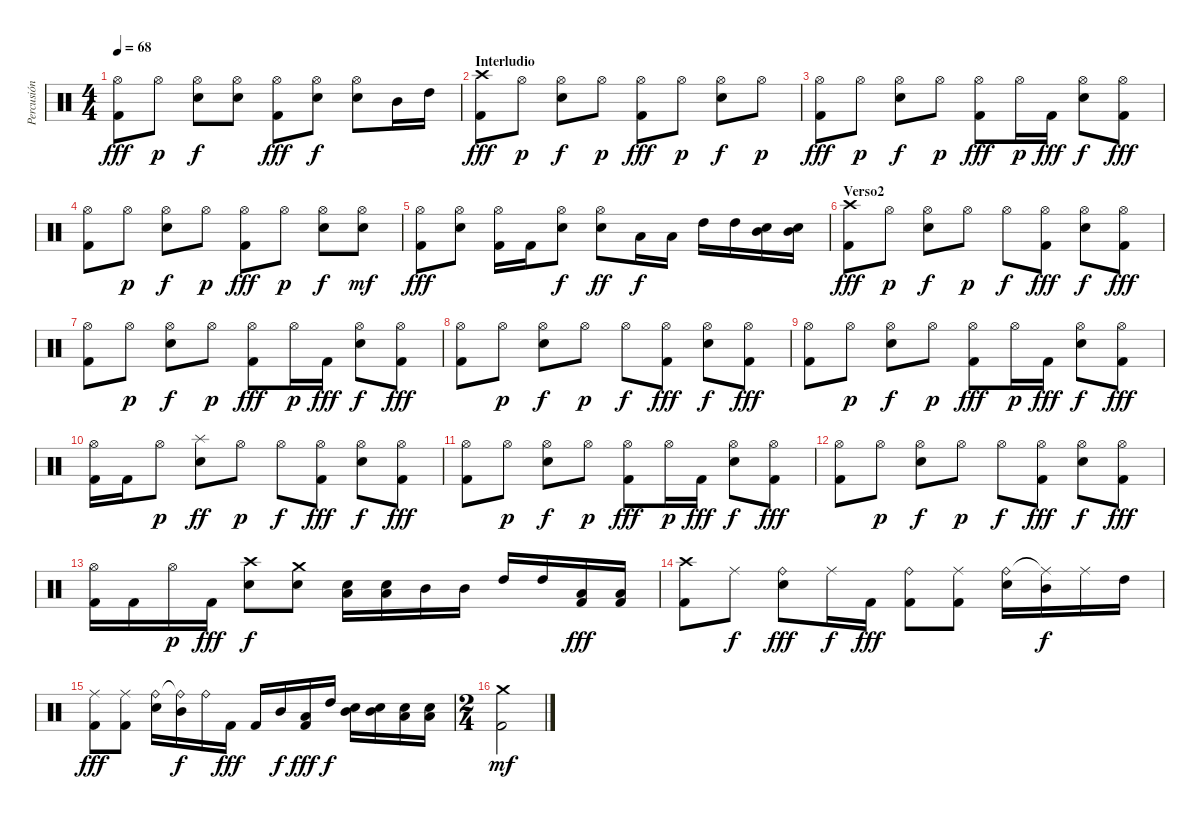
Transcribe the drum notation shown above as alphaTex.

\track ("Percusión" "Percusión") {instrument percussion}
\staff {score}
\articulation defaults
\ts (4 4)
\tempo 68
\clef neutral
\ks c
("Hi-Hat (open)" "Kick (hit) 2").8{dy fff} "Hi-Hat (open)".8{dy p} ("Hi-Hat (open)" "Snare (hit) 2").8{dy f} ("Hi-Hat (open)" "Snare (hit) 2").8 ("Hi-Hat (open)" "Kick (hit) 2").8{dy fff} ("Hi-Hat (open)" "Snare (hit) 2").8{dy f} ("Hi-Hat (open)" "Snare (hit) 2").8 "Mid Tom (hit)".16 "High Tom (hit)".16 |
\section ("" "Interludio")
("Kick (hit) 2" "Crash high (hit)").8{dy fff} "Hi-Hat (open)".8{dy p} ("Hi-Hat (open)" "Snare (hit) 2").8{dy f} "Hi-Hat (open)".8{dy p} ("Hi-Hat (open)" "Kick (hit) 2").8{dy fff} "Hi-Hat (open)".8{dy p} ("Hi-Hat (open)" "Snare (hit) 2").8{dy f} "Hi-Hat (open)".8{dy p} |
("Hi-Hat (open)" "Kick (hit) 2").8{dy fff} "Hi-Hat (open)".8{dy p} ("Hi-Hat (open)" "Snare (hit) 2").8{dy f} "Hi-Hat (open)".8{dy p} ("Hi-Hat (open)" "Kick (hit) 2").8{dy fff} "Hi-Hat (open)".16{dy p} "Kick (hit) 2".16{dy fff} ("Hi-Hat (open)" "Snare (hit) 2").8{dy f} ("Hi-Hat (open)" "Kick (hit) 2").8{dy fff} |
("Hi-Hat (open)" "Kick (hit) 2").8 "Hi-Hat (open)".8{dy p} ("Hi-Hat (open)" "Snare (hit) 2").8{dy f} "Hi-Hat (open)".8{dy p} ("Hi-Hat (open)" "Kick (hit) 2").8{dy fff} "Hi-Hat (open)".8{dy p} ("Hi-Hat (open)" "Snare (hit) 2").8{dy f} ("Hi-Hat (open)" "Snare (hit) 2").8{dy mf} |
("Hi-Hat (open)" "Kick (hit) 2").8{dy fff} ("Hi-Hat (open)" "Snare (hit) 2").8 ("Hi-Hat (open)" "Kick (hit) 2").16 "Kick (hit) 2".16 ("Hi-Hat (open)" "Snare (hit) 2").8{dy f} ("Hi-Hat (open)" "Snare (hit) 2").8{dy ff} "Low Tom (hit)".16{dy f} "Low Tom (hit)".16 "High Tom (hit)".16 "High Tom (hit)".16 ("Snare (hit) 2" "Mid Tom (hit)").16 ("Snare (hit) 2" "Mid Tom (hit)").16 |
\section ("" "Verso2")
("Kick (hit) 2" "Crash high (hit)").8{dy fff} "Hi-Hat (open)".8{dy p} ("Hi-Hat (open)" "Snare (hit) 2").8{dy f} "Hi-Hat (open)".8{dy p} "Hi-Hat (open)".8{dy f} ("Hi-Hat (open)" "Kick (hit) 2").8{dy fff} ("Hi-Hat (open)" "Snare (hit) 2").8{dy f} ("Hi-Hat (open)" "Kick (hit) 2").8{dy fff} |
("Hi-Hat (open)" "Kick (hit) 2").8 "Hi-Hat (open)".8{dy p} ("Hi-Hat (open)" "Snare (hit) 2").8{dy f} "Hi-Hat (open)".8{dy p} ("Hi-Hat (open)" "Kick (hit) 2").8{dy fff} "Hi-Hat (open)".16{dy p} "Kick (hit) 2".16{dy fff} ("Hi-Hat (open)" "Snare (hit) 2").8{dy f} ("Hi-Hat (open)" "Kick (hit) 2").8{dy fff} |
("Hi-Hat (open)" "Kick (hit) 2").8 "Hi-Hat (open)".8{dy p} ("Hi-Hat (open)" "Snare (hit) 2").8{dy f} "Hi-Hat (open)".8{dy p} "Hi-Hat (open)".8{dy f} ("Hi-Hat (open)" "Kick (hit) 2").8{dy fff} ("Hi-Hat (open)" "Snare (hit) 2").8{dy f} ("Hi-Hat (open)" "Kick (hit) 2").8{dy fff} |
("Hi-Hat (open)" "Kick (hit) 2").8 "Hi-Hat (open)".8{dy p} ("Hi-Hat (open)" "Snare (hit) 2").8{dy f} "Hi-Hat (open)".8{dy p} ("Hi-Hat (open)" "Kick (hit) 2").8{dy fff} "Hi-Hat (open)".16{dy p} "Kick (hit) 2".16{dy fff} ("Hi-Hat (open)" "Snare (hit) 2").8{dy f} ("Hi-Hat (open)" "Kick (hit) 2").8{dy fff} |
("Hi-Hat (open)" "Kick (hit) 2").16 "Kick (hit) 2".16 "Hi-Hat (open)".8{dy p} ("Snare (hit) 2" "Splash (hit)").8{dy ff} "Hi-Hat (open)".8{dy p} "Hi-Hat (open)".8{dy f} ("Hi-Hat (open)" "Kick (hit) 2").8{dy fff} ("Hi-Hat (open)" "Snare (hit) 2").8{dy f} ("Hi-Hat (open)" "Kick (hit) 2").8{dy fff} |
("Hi-Hat (open)" "Kick (hit) 2").8 "Hi-Hat (open)".8{dy p} ("Hi-Hat (open)" "Snare (hit) 2").8{dy f} "Hi-Hat (open)".8{dy p} ("Hi-Hat (open)" "Kick (hit) 2").8{dy fff} "Hi-Hat (open)".16{dy p} "Kick (hit) 2".16{dy fff} ("Hi-Hat (open)" "Snare (hit) 2").8{dy f} ("Hi-Hat (open)" "Kick (hit) 2").8{dy fff} |
("Hi-Hat (open)" "Kick (hit) 2").8 "Hi-Hat (open)".8{dy p} ("Hi-Hat (open)" "Snare (hit) 2").8{dy f} "Hi-Hat (open)".8{dy p} "Hi-Hat (open)".8{dy f} ("Hi-Hat (open)" "Kick (hit) 2").8{dy fff} ("Hi-Hat (open)" "Snare (hit) 2").8{dy f} ("Hi-Hat (open)" "Kick (hit) 2").8{dy fff} |
("Hi-Hat (open)" "Kick (hit) 2").16 "Kick (hit) 2".16 "Hi-Hat (open)".16{dy p} "Kick (hit) 2".16{dy fff} ("Snare (hit) 2" "Crash high (hit)").8{dy f} ("Snare (hit) 2" "Crash medium (hit)").8 ("Snare (hit) 2" "Low Tom (hit)").16 ("Snare (hit) 2" "Low Tom (hit)").16 "Mid Tom (hit)".16 "Mid Tom (hit)".16 "High Tom (hit)".16 "High Tom (hit)".16 ("Kick (hit) 2" "Low Tom (hit)").16{dy fff} ("Kick (hit) 2" "Low Tom (hit)").16 |
("Kick (hit) 2" "Crash high (hit)").8 "Ride (middle)".8{dy f} ("Ride (bell)" "Snare (hit) 2").8{dy fff} "Ride (middle)".16{dy f} "Kick (hit) 2".16{dy fff} ("Ride (bell)" "Kick (hit) 2").8 ("Ride (middle)" "Kick (hit) 2").8 ("Ride (bell)" "Snare (hit) 2").16 ("Ride (middle)"{t} "Mid Tom (hit)").16{dy f} "Ride (middle)".16 "High Tom (hit)".16 |
("Ride (middle)" "Kick (hit) 2").8{dy fff} ("Ride (middle)" "Kick (hit) 2").8 ("Ride (bell)" "Snare (hit) 2").16 ("Ride (bell)"{t} "Mid Tom (hit)").16{dy f} "Ride (bell)".16 "Kick (hit) 2".16{dy fff} "Kick (hit) 2".16 "Mid Tom (hit)".16{dy f} ("Kick (hit) 2" "Low Tom (hit)").16{dy fff} "High Tom (hit)".16{dy f} ("Snare (hit) 2" "Mid Tom (hit)").16 ("Snare (hit) 2" "Mid Tom (hit)").16 ("Snare (hit) 2" "Low Tom (hit)").16 ("Snare (hit) 2" "Low Tom (hit)").16 |
\ts (2 4)
("Kick (hit) 2" "Crash medium (hit)").2{dy mf}
